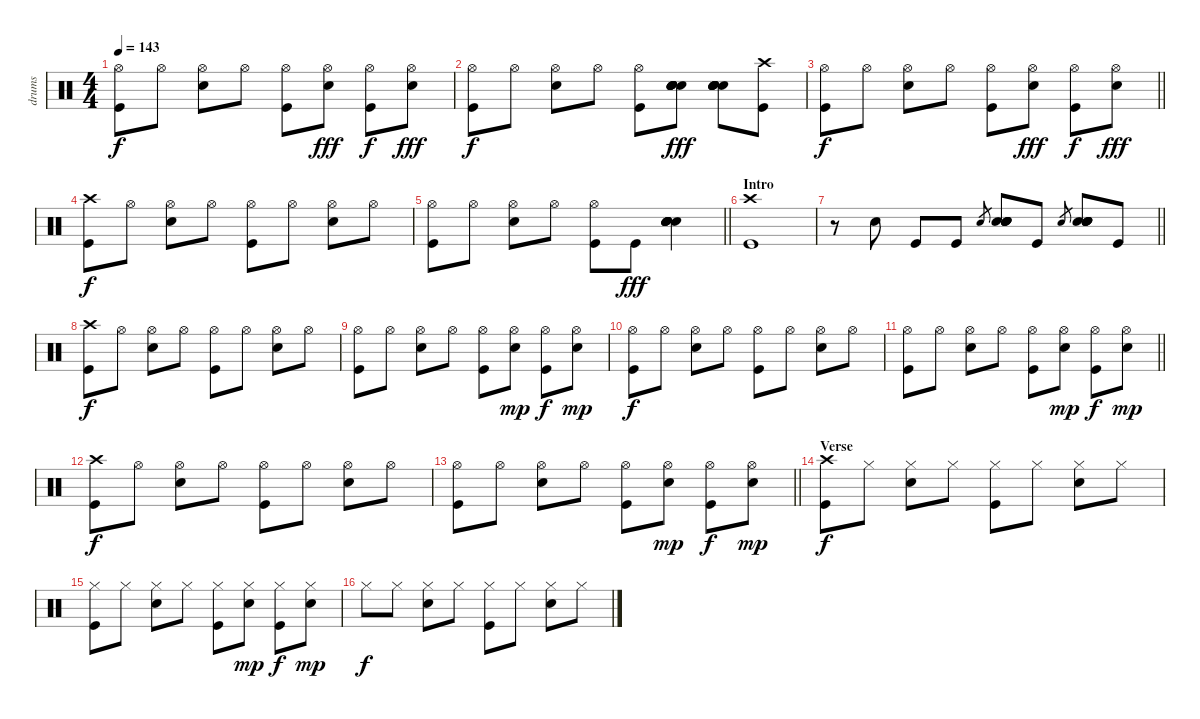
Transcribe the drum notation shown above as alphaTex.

\track ("drums" "drums") {instrument percussion}
\staff {score}
\articulation defaults
\ts (4 4)
\tempo 143
\clef neutral
\ks c
("Hi-Hat (open)" "Kick (hit)").8{dy f} "Hi-Hat (open)".8 ("Hi-Hat (open)" "Snare (hit) 2").8 "Hi-Hat (open)".8 ("Hi-Hat (open)" "Kick (hit)").8 ("Hi-Hat (open)" "Snare (hit) 2").8{dy fff} ("Hi-Hat (open)" "Kick (hit)").8{dy f} ("Hi-Hat (open)" "Snare (hit) 2").8{dy fff} |
("Hi-Hat (open)" "Kick (hit)").8{dy f} "Hi-Hat (open)".8 ("Hi-Hat (open)" "Snare (hit) 2").8 "Hi-Hat (open)".8 ("Hi-Hat (open)" "Kick (hit)").8 ("Snare (hit) 2" "Snare (hit) 2" "Snare (hit) 2" "Snare (hit) 2" "Snare (hit) 2" "Snare (hit) 2").8{dy fff} ("Snare (hit) 2" "Snare (hit) 2" "Snare (hit) 2" "Snare (hit) 2" "Snare (hit) 2" "Snare (hit) 2").8 ("Crash high (hit)" "Kick (hit)").8 |
\barLineRight lightlight
("Hi-Hat (open)" "Kick (hit)").8{dy f} "Hi-Hat (open)".8 ("Hi-Hat (open)" "Snare (hit) 2").8 "Hi-Hat (open)".8 ("Hi-Hat (open)" "Kick (hit)").8 ("Hi-Hat (open)" "Snare (hit) 2").8{dy fff} ("Hi-Hat (open)" "Kick (hit)").8{dy f} ("Hi-Hat (open)" "Snare (hit) 2").8{dy fff} |
("Crash high (hit)" "Kick (hit)").8{dy f} "Hi-Hat (open)".8 ("Hi-Hat (open)" "Snare (hit) 2").8 "Hi-Hat (open)".8 ("Hi-Hat (open)" "Kick (hit)").8 "Hi-Hat (open)".8 ("Hi-Hat (open)" "Snare (hit) 2").8 "Hi-Hat (open)".8 |
\barLineRight lightlight
("Hi-Hat (open)" "Kick (hit)").8 "Hi-Hat (open)".8 ("Hi-Hat (open)" "Snare (hit) 2").8 "Hi-Hat (open)".8 ("Hi-Hat (open)" "Kick (hit)").8 "Kick (hit)".8{dy fff} ("Snare (hit) 2" "Snare (hit) 2" "Snare (hit) 2" "Snare (hit) 2" "Snare (hit) 2" "Snare (hit) 2").4 |
\section ("" "Intro")
("Crash high (hit)" "Kick (hit)").1 |
\barLineRight lightlight
r.8 "Snare (hit) 2".8 "Kick (hit)".8 "Kick (hit)".8 "Snare (hit) 2".8{gr} ("Snare (hit) 2" "Snare (hit) 2" "Snare (hit) 2" "Snare (hit) 2" "Snare (hit) 2").8 "Kick (hit)".8 "Snare (hit) 2".8{gr} ("Snare (hit) 2" "Snare (hit) 2" "Snare (hit) 2" "Snare (hit) 2" "Snare (hit) 2").8 "Kick (hit)".8 |
("Crash high (hit)" "Kick (hit)").8{dy f} "Hi-Hat (open)".8 ("Hi-Hat (open)" "Snare (hit) 2").8 "Hi-Hat (open)".8 ("Hi-Hat (open)" "Kick (hit)").8 "Hi-Hat (open)".8 ("Hi-Hat (open)" "Snare (hit) 2").8 "Hi-Hat (open)".8 |
("Hi-Hat (open)" "Kick (hit)").8 "Hi-Hat (open)".8 ("Hi-Hat (open)" "Snare (hit) 2").8 "Hi-Hat (open)".8 ("Hi-Hat (open)" "Kick (hit)").8 ("Hi-Hat (open)" "Snare (hit) 2").8{dy mp} ("Hi-Hat (open)" "Kick (hit)").8{dy f} ("Hi-Hat (open)" "Snare (hit) 2").8{dy mp} |
("Hi-Hat (open)" "Kick (hit)").8{dy f} "Hi-Hat (open)".8 ("Hi-Hat (open)" "Snare (hit) 2").8 "Hi-Hat (open)".8 ("Hi-Hat (open)" "Kick (hit)").8 "Hi-Hat (open)".8 ("Hi-Hat (open)" "Snare (hit) 2").8 "Hi-Hat (open)".8 |
\barLineRight lightlight
("Hi-Hat (open)" "Kick (hit)").8 "Hi-Hat (open)".8 ("Hi-Hat (open)" "Snare (hit) 2").8 "Hi-Hat (open)".8 ("Hi-Hat (open)" "Kick (hit)").8 ("Hi-Hat (open)" "Snare (hit) 2").8{dy mp} ("Hi-Hat (open)" "Kick (hit)").8{dy f} ("Hi-Hat (open)" "Snare (hit) 2").8{dy mp} |
("Crash high (hit)" "Kick (hit)").8{dy f} "Hi-Hat (open)".8 ("Hi-Hat (open)" "Snare (hit) 2").8 "Hi-Hat (open)".8 ("Hi-Hat (open)" "Kick (hit)").8 "Hi-Hat (open)".8 ("Hi-Hat (open)" "Snare (hit) 2").8 "Hi-Hat (open)".8 |
\barLineRight lightlight
("Hi-Hat (open)" "Kick (hit)").8 "Hi-Hat (open)".8 ("Hi-Hat (open)" "Snare (hit) 2").8 "Hi-Hat (open)".8 ("Hi-Hat (open)" "Kick (hit)").8 ("Hi-Hat (open)" "Snare (hit) 2").8{dy mp} ("Hi-Hat (open)" "Kick (hit)").8{dy f} ("Hi-Hat (open)" "Snare (hit) 2").8{dy mp} |
\section ("" "Verse")
("Crash high (hit)" "Kick (hit)").8{dy f} "Hi-Hat (closed)".8 ("Hi-Hat (closed)" "Snare (hit) 2").8 "Hi-Hat (closed)".8 ("Hi-Hat (closed)" "Kick (hit)").8 "Hi-Hat (closed)".8 ("Hi-Hat (closed)" "Snare (hit) 2").8 "Hi-Hat (closed)".8 |
("Hi-Hat (closed)" "Kick (hit)").8 "Hi-Hat (closed)".8 ("Hi-Hat (closed)" "Snare (hit) 2").8 "Hi-Hat (closed)".8 ("Hi-Hat (closed)" "Kick (hit)").8 ("Hi-Hat (closed)" "Snare (hit) 2").8{dy mp} ("Hi-Hat (closed)" "Kick (hit)").8{dy f} ("Hi-Hat (closed)" "Snare (hit) 2").8{dy mp} |
"Hi-Hat (closed)".8{dy f} "Hi-Hat (closed)".8 ("Hi-Hat (closed)" "Snare (hit) 2").8 "Hi-Hat (closed)".8 ("Hi-Hat (closed)" "Kick (hit)").8 "Hi-Hat (closed)".8 ("Hi-Hat (closed)" "Snare (hit) 2").8 "Hi-Hat (closed)".8
